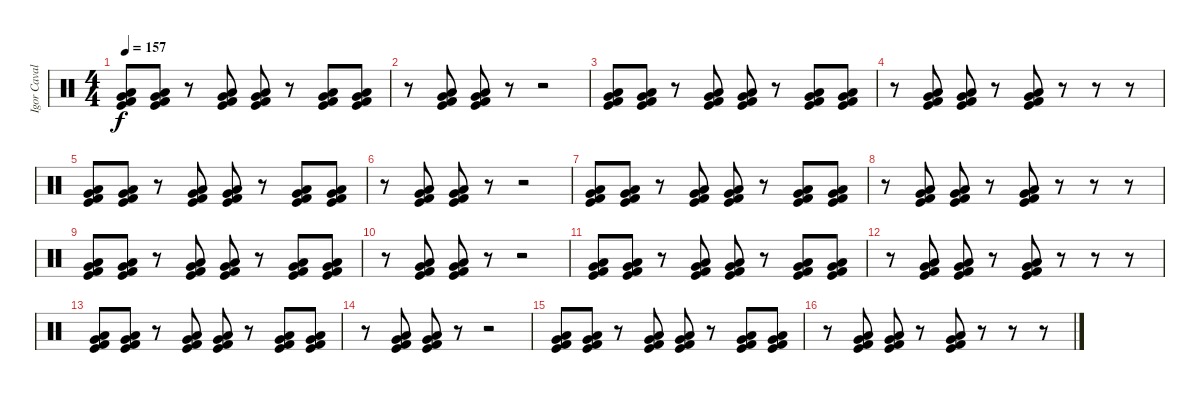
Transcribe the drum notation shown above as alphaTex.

\track ("Igor Cavalera" "Igor Caval") {instrument percussion}
\staff {score}
\articulation defaults
\ts (4 4)
\tempo 157
\clef neutral
\ks c
("Low Floor Tom (hit)" "Very Low Tom (hit)" "Kick (hit) 2" "Kick (hit)").8{dy f} ("Low Floor Tom (hit)" "Very Low Tom (hit)" "Kick (hit) 2" "Kick (hit)").8 r.8 ("Low Floor Tom (hit)" "Very Low Tom (hit)" "Kick (hit) 2" "Kick (hit)").8 ("Low Floor Tom (hit)" "Very Low Tom (hit)" "Kick (hit) 2" "Kick (hit)").8 r.8 ("Low Floor Tom (hit)" "Very Low Tom (hit)" "Kick (hit) 2" "Kick (hit)").8 ("Low Floor Tom (hit)" "Very Low Tom (hit)" "Kick (hit) 2" "Kick (hit)").8 |
r.8 ("Low Floor Tom (hit)" "Very Low Tom (hit)" "Kick (hit) 2" "Kick (hit)").8 ("Low Floor Tom (hit)" "Very Low Tom (hit)" "Kick (hit) 2" "Kick (hit)").8 r.8 r.2 |
("Low Floor Tom (hit)" "Very Low Tom (hit)" "Kick (hit) 2" "Kick (hit)").8 ("Low Floor Tom (hit)" "Very Low Tom (hit)" "Kick (hit) 2" "Kick (hit)").8 r.8 ("Low Floor Tom (hit)" "Very Low Tom (hit)" "Kick (hit) 2" "Kick (hit)").8 ("Low Floor Tom (hit)" "Very Low Tom (hit)" "Kick (hit) 2" "Kick (hit)").8 r.8 ("Low Floor Tom (hit)" "Very Low Tom (hit)" "Kick (hit) 2" "Kick (hit)").8 ("Low Floor Tom (hit)" "Very Low Tom (hit)" "Kick (hit) 2" "Kick (hit)").8 |
r.8 ("Low Floor Tom (hit)" "Very Low Tom (hit)" "Kick (hit) 2" "Kick (hit)").8 ("Low Floor Tom (hit)" "Very Low Tom (hit)" "Kick (hit) 2" "Kick (hit)").8 r.8 ("Low Floor Tom (hit)" "Very Low Tom (hit)" "Kick (hit) 2" "Kick (hit)").8 r.8 r.8 r.8 |
("Low Floor Tom (hit)" "Very Low Tom (hit)" "Kick (hit) 2" "Kick (hit)").8 ("Low Floor Tom (hit)" "Very Low Tom (hit)" "Kick (hit) 2" "Kick (hit)").8 r.8 ("Low Floor Tom (hit)" "Very Low Tom (hit)" "Kick (hit) 2" "Kick (hit)").8 ("Low Floor Tom (hit)" "Very Low Tom (hit)" "Kick (hit) 2" "Kick (hit)").8 r.8 ("Low Floor Tom (hit)" "Very Low Tom (hit)" "Kick (hit) 2" "Kick (hit)").8 ("Low Floor Tom (hit)" "Very Low Tom (hit)" "Kick (hit) 2" "Kick (hit)").8 |
r.8 ("Low Floor Tom (hit)" "Very Low Tom (hit)" "Kick (hit) 2" "Kick (hit)").8 ("Low Floor Tom (hit)" "Very Low Tom (hit)" "Kick (hit) 2" "Kick (hit)").8 r.8 r.2 |
("Low Floor Tom (hit)" "Very Low Tom (hit)" "Kick (hit) 2" "Kick (hit)").8 ("Low Floor Tom (hit)" "Very Low Tom (hit)" "Kick (hit) 2" "Kick (hit)").8 r.8 ("Low Floor Tom (hit)" "Very Low Tom (hit)" "Kick (hit) 2" "Kick (hit)").8 ("Low Floor Tom (hit)" "Very Low Tom (hit)" "Kick (hit) 2" "Kick (hit)").8 r.8 ("Low Floor Tom (hit)" "Very Low Tom (hit)" "Kick (hit) 2" "Kick (hit)").8 ("Low Floor Tom (hit)" "Very Low Tom (hit)" "Kick (hit) 2" "Kick (hit)").8 |
r.8 ("Low Floor Tom (hit)" "Very Low Tom (hit)" "Kick (hit) 2" "Kick (hit)").8 ("Low Floor Tom (hit)" "Very Low Tom (hit)" "Kick (hit) 2" "Kick (hit)").8 r.8 ("Low Floor Tom (hit)" "Very Low Tom (hit)" "Kick (hit) 2" "Kick (hit)").8 r.8 r.8 r.8 |
("Low Floor Tom (hit)" "Very Low Tom (hit)" "Kick (hit) 2" "Kick (hit)").8 ("Low Floor Tom (hit)" "Very Low Tom (hit)" "Kick (hit) 2" "Kick (hit)").8 r.8 ("Low Floor Tom (hit)" "Very Low Tom (hit)" "Kick (hit) 2" "Kick (hit)").8 ("Low Floor Tom (hit)" "Very Low Tom (hit)" "Kick (hit) 2" "Kick (hit)").8 r.8 ("Low Floor Tom (hit)" "Very Low Tom (hit)" "Kick (hit) 2" "Kick (hit)").8 ("Low Floor Tom (hit)" "Very Low Tom (hit)" "Kick (hit) 2" "Kick (hit)").8 |
r.8 ("Low Floor Tom (hit)" "Very Low Tom (hit)" "Kick (hit) 2" "Kick (hit)").8 ("Low Floor Tom (hit)" "Very Low Tom (hit)" "Kick (hit) 2" "Kick (hit)").8 r.8 r.2 |
("Low Floor Tom (hit)" "Very Low Tom (hit)" "Kick (hit) 2" "Kick (hit)").8 ("Low Floor Tom (hit)" "Very Low Tom (hit)" "Kick (hit) 2" "Kick (hit)").8 r.8 ("Low Floor Tom (hit)" "Very Low Tom (hit)" "Kick (hit) 2" "Kick (hit)").8 ("Low Floor Tom (hit)" "Very Low Tom (hit)" "Kick (hit) 2" "Kick (hit)").8 r.8 ("Low Floor Tom (hit)" "Very Low Tom (hit)" "Kick (hit) 2" "Kick (hit)").8 ("Low Floor Tom (hit)" "Very Low Tom (hit)" "Kick (hit) 2" "Kick (hit)").8 |
r.8 ("Low Floor Tom (hit)" "Very Low Tom (hit)" "Kick (hit) 2" "Kick (hit)").8 ("Low Floor Tom (hit)" "Very Low Tom (hit)" "Kick (hit) 2" "Kick (hit)").8 r.8 ("Low Floor Tom (hit)" "Very Low Tom (hit)" "Kick (hit) 2" "Kick (hit)").8 r.8 r.8 r.8 |
("Low Floor Tom (hit)" "Very Low Tom (hit)" "Kick (hit) 2" "Kick (hit)").8 ("Low Floor Tom (hit)" "Very Low Tom (hit)" "Kick (hit) 2" "Kick (hit)").8 r.8 ("Low Floor Tom (hit)" "Very Low Tom (hit)" "Kick (hit) 2" "Kick (hit)").8 ("Low Floor Tom (hit)" "Very Low Tom (hit)" "Kick (hit) 2" "Kick (hit)").8 r.8 ("Low Floor Tom (hit)" "Very Low Tom (hit)" "Kick (hit) 2" "Kick (hit)").8 ("Low Floor Tom (hit)" "Very Low Tom (hit)" "Kick (hit) 2" "Kick (hit)").8 |
r.8 ("Low Floor Tom (hit)" "Very Low Tom (hit)" "Kick (hit) 2" "Kick (hit)").8 ("Low Floor Tom (hit)" "Very Low Tom (hit)" "Kick (hit) 2" "Kick (hit)").8 r.8 r.2 |
("Low Floor Tom (hit)" "Very Low Tom (hit)" "Kick (hit) 2" "Kick (hit)").8 ("Low Floor Tom (hit)" "Very Low Tom (hit)" "Kick (hit) 2" "Kick (hit)").8 r.8 ("Low Floor Tom (hit)" "Very Low Tom (hit)" "Kick (hit) 2" "Kick (hit)").8 ("Low Floor Tom (hit)" "Very Low Tom (hit)" "Kick (hit) 2" "Kick (hit)").8 r.8 ("Low Floor Tom (hit)" "Very Low Tom (hit)" "Kick (hit) 2" "Kick (hit)").8 ("Low Floor Tom (hit)" "Very Low Tom (hit)" "Kick (hit) 2" "Kick (hit)").8 |
r.8 ("Low Floor Tom (hit)" "Very Low Tom (hit)" "Kick (hit) 2" "Kick (hit)").8 ("Low Floor Tom (hit)" "Very Low Tom (hit)" "Kick (hit) 2" "Kick (hit)").8 r.8 ("Low Floor Tom (hit)" "Very Low Tom (hit)" "Kick (hit) 2" "Kick (hit)").8 r.8 r.8 r.8
